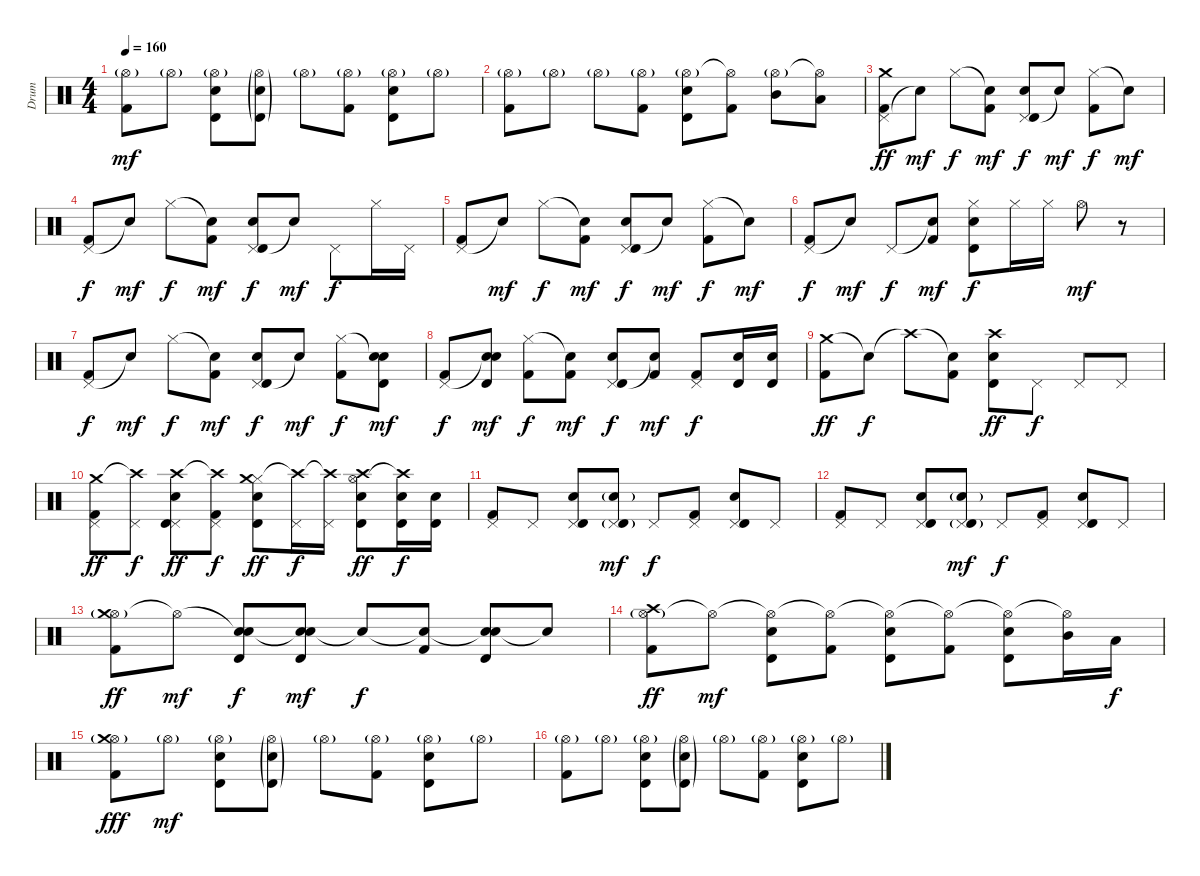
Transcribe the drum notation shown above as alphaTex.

\track ("Drum" "Drum") {instrument percussion}
\staff {score}
\articulation defaults
\ts (4 4)
\tempo 160
\clef neutral
\ks c
("Hi-Hat (open)"{g} "Kick (hit) 2").8{dy mf} "Hi-Hat (open)"{g}.8 ("Hi-Hat (open)"{g} "Timbale high (hit)" "Electric Snare (hit)").8 ("Hi-Hat (open)"{g} "Timbale high (hit)"{g} "Electric Snare (hit)"{g}).8 "Hi-Hat (open)"{g}.8 ("Hi-Hat (open)"{g} "Kick (hit) 2").8 ("Hi-Hat (open)"{g} "Timbale high (hit)" "Electric Snare (hit)").8 "Hi-Hat (open)"{g}.8 |
("Hi-Hat (open)"{g} "Kick (hit) 2").8 "Hi-Hat (open)"{g}.8 "Hi-Hat (open)"{g}.8 ("Hi-Hat (open)"{g} "Kick (hit) 2").8 ("Hi-Hat (open)"{g} "Timbale high (hit)" "Electric Snare (hit)").8 ("Hi-Hat (open)"{t} "Kick (hit) 2").8 ("Hi-Hat (open)"{g} "Mid Tom (hit)").8 ("Hi-Hat (open)"{t} "Low Tom (hit)").8 |
("Pedal Hi-Hat (hit)" "Crash medium (hit)" "Kick (hit) 2").8{dy ff} "Snare (hit)"{t}.8{dy mf} "Hi-Hat (closed)".8{dy f} ("Snare (hit)"{t} "Kick (hit) 2").8{dy mf} ("Pedal Hi-Hat (hit)" "Timbale high (hit)" "Electric Snare (hit)").8{dy f} "Snare (hit)"{t}.8{dy mf} ("Hi-Hat (closed)" "Kick (hit) 2").8{dy f} "Snare (hit)"{t}.8{dy mf} |
("Pedal Hi-Hat (hit)" "Kick (hit) 2").8{dy f} "Snare (hit)"{t}.8{dy mf} "Hi-Hat (closed)".8{dy f} ("Snare (hit)"{t} "Kick (hit) 2").8{dy mf} ("Pedal Hi-Hat (hit)" "Timbale high (hit)" "Electric Snare (hit)").8{dy f} "Snare (hit)"{t}.8{dy mf} "Pedal Hi-Hat (hit)".8{dy f} "Hi-Hat (closed)".16 "Pedal Hi-Hat (hit)".16 |
("Pedal Hi-Hat (hit)" "Kick (hit) 2").8 "Snare (hit)"{t}.8{dy mf} "Hi-Hat (closed)".8{dy f} ("Snare (hit)"{t} "Kick (hit) 2").8{dy mf} ("Pedal Hi-Hat (hit)" "Timbale high (hit)" "Electric Snare (hit)").8{dy f} "Snare (hit)"{t}.8{dy mf} ("Hi-Hat (closed)" "Kick (hit) 2").8{dy f} "Snare (hit)"{t}.8{dy mf} |
("Pedal Hi-Hat (hit)" "Kick (hit) 2").8{dy f} "Snare (hit)"{t}.8{dy mf} "Pedal Hi-Hat (hit)".8{dy f} ("Snare (hit)"{t} "Kick (hit) 2").8{dy mf} ("Hi-Hat (closed)" "Timbale high (hit)" "Electric Snare (hit)").8{dy f} "Hi-Hat (closed)".16 "Hi-Hat (closed)".16 "Hi-Hat (open)".8{dy mf} r.8 |
("Pedal Hi-Hat (hit)" "Kick (hit) 2").8{dy f} "Snare (hit)"{t}.8{dy mf} "Hi-Hat (closed)".8{dy f} ("Snare (hit)"{t} "Kick (hit) 2").8{dy mf} ("Pedal Hi-Hat (hit)" "Timbale high (hit)" "Electric Snare (hit)").8{dy f} "Snare (hit)"{t}.8{dy mf} ("Hi-Hat (closed)" "Kick (hit) 2").8{dy f} ("Snare (hit)"{t} "Timbale high (hit)" "Electric Snare (hit)").8{dy mf} |
("Pedal Hi-Hat (hit)" "Kick (hit) 2").8{dy f} ("Snare (hit)"{t} "Timbale high (hit)" "Electric Snare (hit)").8{dy mf} ("Hi-Hat (closed)" "Kick (hit) 2").8{dy f} ("Snare (hit)"{t} "Kick (hit) 2").8{dy mf} ("Pedal Hi-Hat (hit)" "Timbale high (hit)" "Electric Snare (hit)").8{dy f} ("Snare (hit)"{t} "Kick (hit) 2").8{dy mf} ("Pedal Hi-Hat (hit)" "Kick (hit) 2").8{dy f} ("Timbale high (hit)" "Electric Snare (hit)").16 ("Timbale high (hit)" "Electric Snare (hit)").16 |
("Crash medium (hit)" "Kick (hit) 2").8{dy ff} "Snare (hit)"{t}.8{dy f} "Crash high (hit)"{t}.8 ("Snare (hit)"{t} "Kick (hit) 2").8 ("Crash high (hit)" "Timbale high (hit)" "Electric Snare (hit)").8{dy ff} "Pedal Hi-Hat (hit)".8{dy f} "Pedal Hi-Hat (hit)".8 "Pedal Hi-Hat (hit)".8 |
("Pedal Hi-Hat (hit)" "Crash medium (hit)" "Kick (hit) 2").8{dy ff} ("Pedal Hi-Hat (hit)" "Crash high (hit)"{t}).8{dy f} ("Pedal Hi-Hat (hit)" "Crash high (hit)" "Timbale high (hit)" "Electric Snare (hit)").8{dy ff} ("Pedal Hi-Hat (hit)" "Crash high (hit)"{t} "Kick (hit) 2").8{dy f} ("Hi-Hat (closed)" "Crash medium (hit)" "Timbale high (hit)" "Electric Snare (hit)").8{dy ff} ("Pedal Hi-Hat (hit)" "Crash high (hit)"{t}).16{dy f} ("Pedal Hi-Hat (hit)" "Crash high (hit)"{t}).16 ("Hi-Hat (open)" "Crash high (hit)" "Timbale high (hit)" "Electric Snare (hit)").8{dy ff} ("Crash high (hit)"{t} "Timbale high (hit)" "Electric Snare (hit)").16{dy f} ("Timbale high (hit)" "Electric Snare (hit)").16 |
("Pedal Hi-Hat (hit)" "Kick (hit) 2").8 "Pedal Hi-Hat (hit)".8 ("Pedal Hi-Hat (hit)" "Timbale high (hit)" "Electric Snare (hit)").8 ("Pedal Hi-Hat (hit)" "Timbale high (hit)"{g} "Electric Snare (hit)"{g}).8{dy mf} "Pedal Hi-Hat (hit)".8{dy f} ("Pedal Hi-Hat (hit)" "Kick (hit) 2").8 ("Pedal Hi-Hat (hit)" "Timbale high (hit)" "Electric Snare (hit)").8 "Pedal Hi-Hat (hit)".8 |
("Pedal Hi-Hat (hit)" "Kick (hit) 2").8 "Pedal Hi-Hat (hit)".8 ("Pedal Hi-Hat (hit)" "Timbale high (hit)" "Electric Snare (hit)").8 ("Pedal Hi-Hat (hit)" "Timbale high (hit)"{g} "Electric Snare (hit)"{g}).8{dy mf} "Pedal Hi-Hat (hit)".8{dy f} ("Pedal Hi-Hat (hit)" "Kick (hit) 2").8 ("Pedal Hi-Hat (hit)" "Timbale high (hit)" "Electric Snare (hit)").8 "Pedal Hi-Hat (hit)".8 |
("Hi-Hat (open)"{g} "Crash medium (hit)" "Kick (hit) 2").8{dy ff} "Hi-Hat (open)"{t}.8{dy mf} ("Snare (hit)"{t} "Timbale high (hit)" "Electric Snare (hit)").8{dy f} ("Snare (hit)"{t} "Timbale high (hit)" "Electric Snare (hit)").8{dy mf} "Snare (hit)"{t}.8{dy f} ("Snare (hit)"{t} "Kick (hit) 2").8 ("Snare (hit)"{t} "Timbale high (hit)" "Electric Snare (hit)").8 "Snare (hit)"{t}.8 |
("Hi-Hat (open)"{g} "Crash high (hit)" "Kick (hit) 2").8{dy ff} "Hi-Hat (open)"{t}.8{dy mf} ("Hi-Hat (open)"{t} "Timbale high (hit)" "Electric Snare (hit)").8 ("Hi-Hat (open)"{t} "Kick (hit) 2").8 ("Hi-Hat (open)"{t} "Timbale high (hit)" "Electric Snare (hit)").8 ("Hi-Hat (open)"{t} "Kick (hit) 2").8 ("Hi-Hat (open)"{t} "Timbale high (hit)" "Electric Snare (hit)").8 ("Hi-Hat (open)"{t} "Mid Tom (hit)").16 "Low Tom (hit)".16{dy f} |
("Hi-Hat (open)"{g} "Crash medium (hit)" "Kick (hit) 2").8{dy fff} "Hi-Hat (open)"{g}.8{dy mf} ("Hi-Hat (open)"{g} "Timbale high (hit)" "Electric Snare (hit)").8 ("Hi-Hat (open)"{g} "Timbale high (hit)"{g} "Electric Snare (hit)"{g}).8 "Hi-Hat (open)"{g}.8 ("Hi-Hat (open)"{g} "Kick (hit) 2").8 ("Hi-Hat (open)"{g} "Timbale high (hit)" "Electric Snare (hit)").8 "Hi-Hat (open)"{g}.8 |
("Hi-Hat (open)"{g} "Kick (hit) 2").8 "Hi-Hat (open)"{g}.8 ("Hi-Hat (open)"{g} "Timbale high (hit)" "Electric Snare (hit)").8 ("Hi-Hat (open)"{g} "Timbale high (hit)"{g} "Electric Snare (hit)"{g}).8 "Hi-Hat (open)"{g}.8 ("Hi-Hat (open)"{g} "Kick (hit) 2").8 ("Hi-Hat (open)"{g} "Timbale high (hit)" "Electric Snare (hit)").8 "Hi-Hat (open)"{g}.8
